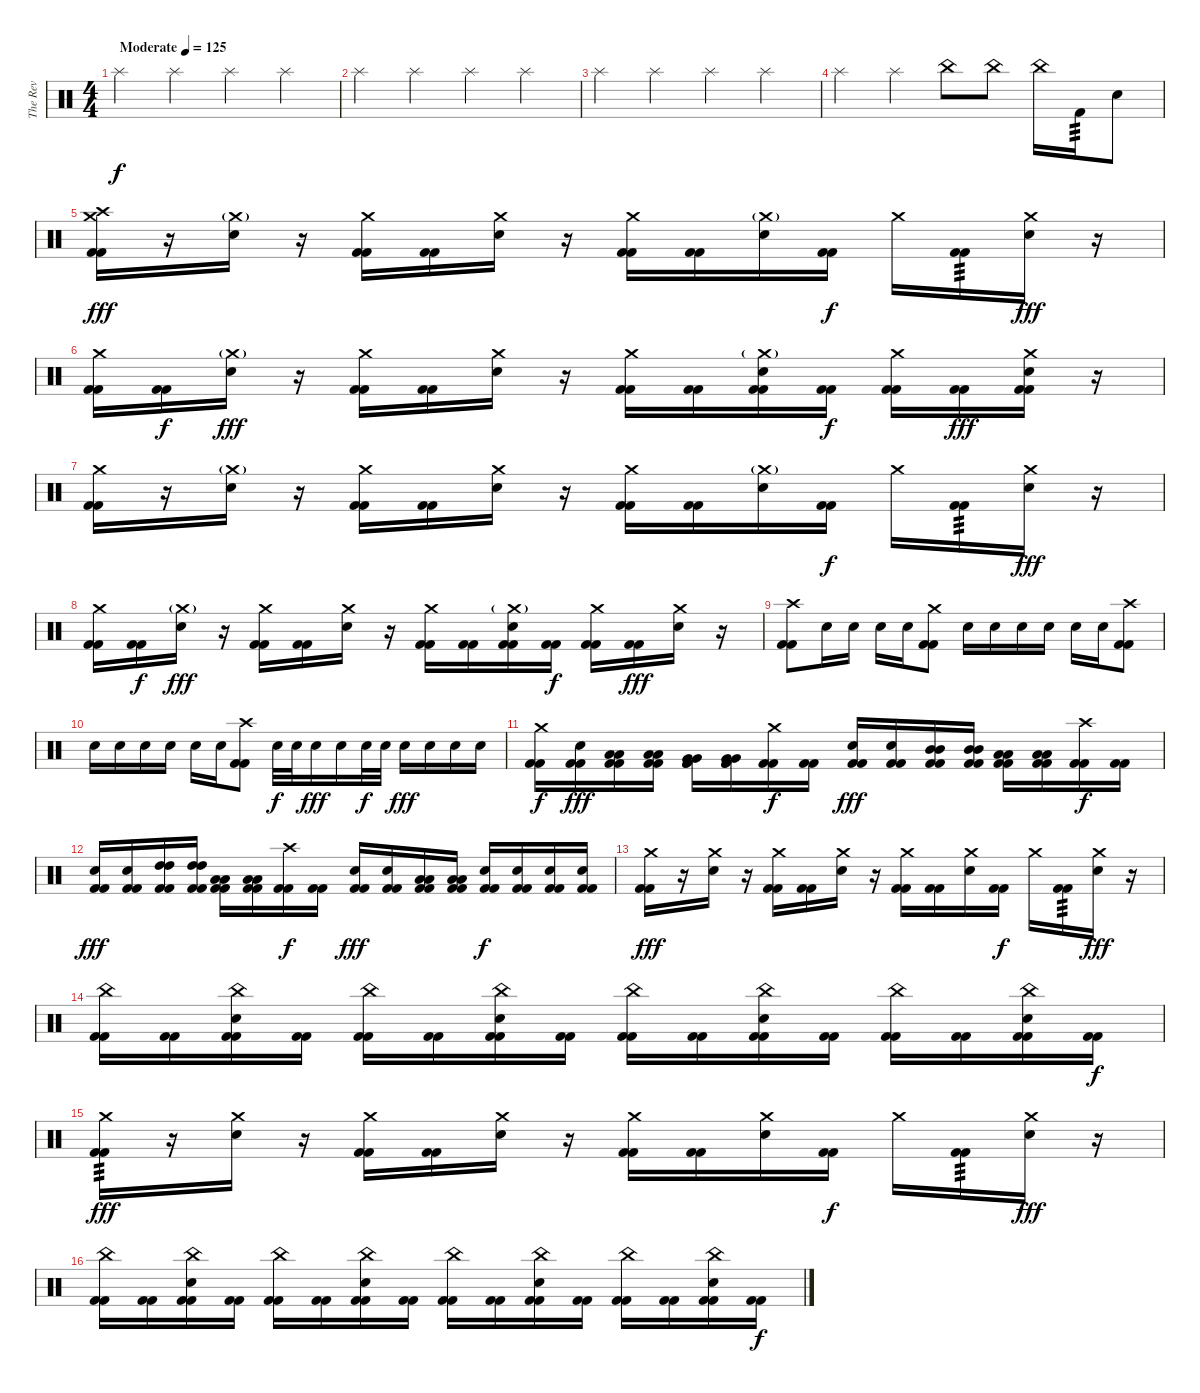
\track ("The Rev" "The Rev") {instrument percussion}
\staff {score}
\articulation defaults
\ts (4 4)
\tempo (125 "Moderate")
\clef neutral
\ks c "Splash (hit)".4{dy f} "Splash (hit)".4 "Splash (hit)".4 "Splash (hit)".4
|
"Splash (hit)".4 "Splash (hit)".4 "Splash (hit)".4 "Splash (hit)".4 |
"Splash (hit)".4 "Splash (hit)".4 "Splash (hit)".4 "Splash (hit)".4 |
"Splash (hit)".4 "Splash (hit)".4 "China (hit)".8 "China (hit)".8 "China (hit)".16 "Kick (hit) 2".16{tp 3} "Electric Snare (hit)".8 |
("Crash medium (hit)" "Crash high (hit)" "Kick (hit) 2" "Kick (hit) 2").16{dy fff} r.16 ("Crash medium (hit)"{g} "Electric Snare (hit)").16 r.16 ("Crash medium (hit)" "Kick (hit) 2" "Kick (hit) 2").16 ("Kick (hit) 2" "Kick (hit) 2").16 ("Crash medium (hit)" "Electric Snare (hit)").16 r.16 ("Crash medium (hit)" "Kick (hit) 2" "Kick (hit) 2").16 ("Kick (hit) 2" "Kick (hit) 2").16 ("Crash medium (hit)"{g} "Electric Snare (hit)").16 ("Kick (hit) 2" "Kick (hit) 2").16{dy f} "Crash medium (hit)".16 ("Kick (hit) 2" "Kick (hit) 2").16{tp 3} ("Crash medium (hit)" "Electric Snare (hit)").16{dy fff} r.16 |
("Crash medium (hit)" "Kick (hit) 2" "Kick (hit) 2").16 ("Kick (hit) 2" "Kick (hit) 2").16{dy f} ("Crash medium (hit)"{g} "Electric Snare (hit)").16{dy fff} r.16 ("Crash medium (hit)" "Kick (hit) 2" "Kick (hit) 2").16 ("Kick (hit) 2" "Kick (hit) 2").16 ("Crash medium (hit)" "Electric Snare (hit)").16 r.16 ("Crash medium (hit)" "Kick (hit) 2" "Kick (hit) 2").16 ("Kick (hit) 2" "Kick (hit) 2").16 ("Crash medium (hit)"{g} "Electric Snare (hit)" "Kick (hit) 2" "Kick (hit) 2").16 ("Kick (hit) 2" "Kick (hit) 2").16{dy f} ("Crash medium (hit)" "Kick (hit) 2" "Kick (hit) 2").16 ("Kick (hit) 2" "Kick (hit) 2").16{dy fff} ("Crash medium (hit)" "Electric Snare (hit)" "Kick (hit) 2" "Kick (hit) 2").16 r.16 |
("Crash medium (hit)" "Kick (hit) 2" "Kick (hit) 2").16 r.16 ("Crash medium (hit)"{g} "Electric Snare (hit)").16 r.16 ("Crash medium (hit)" "Kick (hit) 2" "Kick (hit) 2").16 ("Kick (hit) 2" "Kick (hit) 2").16 ("Crash medium (hit)" "Electric Snare (hit)").16 r.16 ("Crash medium (hit)" "Kick (hit) 2" "Kick (hit) 2").16 ("Kick (hit) 2" "Kick (hit) 2").16 ("Crash medium (hit)"{g} "Electric Snare (hit)").16 ("Kick (hit) 2" "Kick (hit) 2").16{dy f} "Crash medium (hit)".16 ("Kick (hit) 2" "Kick (hit) 2").16{tp 3} ("Crash medium (hit)" "Electric Snare (hit)").16{dy fff} r.16 |
("Crash medium (hit)" "Kick (hit) 2" "Kick (hit) 2").16 ("Kick (hit) 2" "Kick (hit) 2").16{dy f} ("Crash medium (hit)"{g} "Electric Snare (hit)").16{dy fff} r.16 ("Crash medium (hit)" "Kick (hit) 2" "Kick (hit) 2").16 ("Kick (hit) 2" "Kick (hit) 2").16 ("Crash medium (hit)" "Electric Snare (hit)").16 r.16 ("Crash medium (hit)" "Kick (hit) 2" "Kick (hit) 2").16 ("Kick (hit) 2" "Kick (hit) 2").16 ("Crash medium (hit)"{g} "Electric Snare (hit)" "Kick (hit) 2" "Kick (hit) 2").16 ("Kick (hit) 2" "Kick (hit) 2").16{dy f} ("Crash medium (hit)" "Kick (hit) 2" "Kick (hit) 2").16 ("Kick (hit) 2" "Kick (hit) 2").16{dy fff} ("Crash medium (hit)" "Electric Snare (hit)").16 r.16 |
("Crash high (hit)" "Kick (hit) 2" "Kick (hit) 2").8 "Electric Snare (hit)".16 "Electric Snare (hit)".16 "Electric Snare (hit)".16 "Electric Snare (hit)".16 ("Crash medium (hit)" "Kick (hit) 2" "Kick (hit) 2").8 "Electric Snare (hit)".16 "Electric Snare (hit)".16 "Electric Snare (hit)".16 "Electric Snare (hit)".16 "Electric Snare (hit)".16 "Electric Snare (hit)".16 ("Crash high (hit)" "Kick (hit) 2" "Kick (hit) 2").8 |
"Electric Snare (hit)".16 "Electric Snare (hit)".16 "Electric Snare (hit)".16 "Electric Snare (hit)".16 "Electric Snare (hit)".16 "Electric Snare (hit)".16 ("Crash high (hit)" "Kick (hit) 2" "Kick (hit) 2").8 "Electric Snare (hit)".32{dy f} "Electric Snare (hit)".32 "Electric Snare (hit)".16{dy fff} "Electric Snare (hit)".16 "Electric Snare (hit)".32{dy f} "Electric Snare (hit)".32 "Electric Snare (hit)".16{dy fff} "Electric Snare (hit)".16 "Electric Snare (hit)".16 "Electric Snare (hit)".16 |
("Crash medium (hit)" "Kick (hit) 2" "Kick (hit) 2").16{dy f} ("Electric Snare (hit)" "Kick (hit) 2" "Kick (hit) 2").16{dy fff} ("Low Tom (hit)" "Low Tom (hit)" "Kick (hit) 2" "Kick (hit) 2").16 ("Low Tom (hit)" "Low Tom (hit)" "Kick (hit) 2" "Kick (hit) 2").16 ("Very Low Tom (hit)" "Very Low Tom (hit)" "Kick (hit) 2" "Kick (hit) 2").16 ("Very Low Tom (hit)" "Very Low Tom (hit)" "Kick (hit) 2" "Kick (hit) 2").16 ("Crash medium (hit)" "Kick (hit) 2" "Kick (hit) 2").16{dy f} ("Kick (hit) 2" "Kick (hit) 2").16 ("Electric Snare (hit)" "Kick (hit) 2" "Kick (hit) 2").16{dy fff} ("Electric Snare (hit)" "Kick (hit) 2" "Kick (hit) 2").16 ("Mid Tom (hit)" "Mid Tom (hit)" "Kick (hit) 2" "Kick (hit) 2").16 ("Mid Tom (hit)" "Mid Tom (hit)" "Kick (hit) 2" "Kick (hit) 2").16 ("Low Tom (hit)" "Low Tom (hit)" "Kick (hit) 2" "Kick (hit) 2").16 ("Low Tom (hit)" "Low Tom (hit)" "Kick (hit) 2" "Kick (hit) 2").16 ("Crash high (hit)" "Kick (hit) 2" "Kick (hit) 2").16{dy f} ("Kick (hit) 2" "Kick (hit) 2").16 |
("Electric Snare (hit)" "Kick (hit) 2" "Kick (hit) 2").16{dy fff} ("Electric Snare (hit)" "Kick (hit) 2" "Kick (hit) 2").16 ("High Tom (hit)" "High Tom (hit)" "Kick (hit) 2" "Kick (hit) 2").16 ("High Tom (hit)" "High Tom (hit)" "Kick (hit) 2" "Kick (hit) 2").16 ("Low Tom (hit)" "Low Tom (hit)" "Kick (hit) 2" "Kick (hit) 2").16 ("Low Tom (hit)" "Low Tom (hit)" "Kick (hit) 2" "Kick (hit) 2").16 ("Crash high (hit)" "Kick (hit) 2" "Kick (hit) 2").16{dy f} ("Kick (hit) 2" "Kick (hit) 2").16 ("Electric Snare (hit)" "Kick (hit) 2" "Kick (hit) 2").16{dy fff} ("Electric Snare (hit)" "Kick (hit) 2" "Kick (hit) 2").16 ("Low Tom (hit)" "Low Tom (hit)" "Kick (hit) 2" "Kick (hit) 2").16 ("Low Tom (hit)" "Low Tom (hit)" "Kick (hit) 2" "Kick (hit) 2").16 ("Electric Snare (hit)" "Kick (hit) 2" "Kick (hit) 2").16{dy f} ("Electric Snare (hit)" "Kick (hit) 2" "Kick (hit) 2").16 ("Electric Snare (hit)" "Kick (hit) 2" "Kick (hit) 2").16 ("Electric Snare (hit)" "Kick (hit) 2" "Kick (hit) 2").16 |
("Crash medium (hit)" "Kick (hit) 2" "Kick (hit) 2").16{dy fff} r.16 ("Crash medium (hit)" "Electric Snare (hit)").16 r.16 ("Crash medium (hit)" "Kick (hit) 2" "Kick (hit) 2").16 ("Kick (hit) 2" "Kick (hit) 2").16 ("Crash medium (hit)" "Electric Snare (hit)").16 r.16 ("Crash medium (hit)" "Kick (hit) 2" "Kick (hit) 2").16 ("Kick (hit) 2" "Kick (hit) 2").16 ("Crash medium (hit)" "Electric Snare (hit)").16 ("Kick (hit) 2" "Kick (hit) 2").16{dy f} "Crash medium (hit)".16 ("Kick (hit) 2" "Kick (hit) 2").16{tp 3} ("Crash medium (hit)" "Electric Snare (hit)").16{dy fff} r.16 |
("China (hit)" "Kick (hit) 2" "Kick (hit) 2").16 ("Kick (hit) 2" "Kick (hit) 2").16 ("China (hit)" "Electric Snare (hit)" "Kick (hit) 2" "Kick (hit) 2").16 ("Kick (hit) 2" "Kick (hit) 2").16 ("China (hit)" "Kick (hit) 2" "Kick (hit) 2").16 ("Kick (hit) 2" "Kick (hit) 2").16 ("China (hit)" "Electric Snare (hit)" "Kick (hit) 2" "Kick (hit) 2").16 ("Kick (hit) 2" "Kick (hit) 2").16 ("China (hit)" "Kick (hit) 2" "Kick (hit) 2").16 ("Kick (hit) 2" "Kick (hit) 2").16 ("China (hit)" "Electric Snare (hit)" "Kick (hit) 2" "Kick (hit) 2").16 ("Kick (hit) 2" "Kick (hit) 2").16 ("China (hit)" "Kick (hit) 2" "Kick (hit) 2").16 ("Kick (hit) 2" "Kick (hit) 2").16 ("China (hit)" "Electric Snare (hit)" "Kick (hit) 2" "Kick (hit) 2").16 ("Kick (hit) 2" "Kick (hit) 2").16{dy f} |
("Crash medium (hit)" "Kick (hit) 2" "Kick (hit) 2").16{tp 3 dy fff} r.16 ("Crash medium (hit)" "Electric Snare (hit)").16 r.16 ("Crash medium (hit)" "Kick (hit) 2" "Kick (hit) 2").16 ("Kick (hit) 2" "Kick (hit) 2").16 ("Crash medium (hit)" "Electric Snare (hit)").16 r.16 ("Crash medium (hit)" "Kick (hit) 2" "Kick (hit) 2").16 ("Kick (hit) 2" "Kick (hit) 2").16 ("Crash medium (hit)" "Electric Snare (hit)").16 ("Kick (hit) 2" "Kick (hit) 2").16{dy f} "Crash medium (hit)".16 ("Kick (hit) 2" "Kick (hit) 2").16{tp 3} ("Crash medium (hit)" "Electric Snare (hit)").16{dy fff} r.16 |
("China (hit)" "Kick (hit) 2" "Kick (hit) 2").16 ("Kick (hit) 2" "Kick (hit) 2").16 ("China (hit)" "Electric Snare (hit)" "Kick (hit) 2" "Kick (hit) 2").16 ("Kick (hit) 2" "Kick (hit) 2").16 ("China (hit)" "Kick (hit) 2" "Kick (hit) 2").16 ("Kick (hit) 2" "Kick (hit) 2").16 ("China (hit)" "Electric Snare (hit)" "Kick (hit) 2" "Kick (hit) 2").16 ("Kick (hit) 2" "Kick (hit) 2").16 ("China (hit)" "Kick (hit) 2" "Kick (hit) 2").16 ("Kick (hit) 2" "Kick (hit) 2").16 ("China (hit)" "Electric Snare (hit)" "Kick (hit) 2" "Kick (hit) 2").16 ("Kick (hit) 2" "Kick (hit) 2").16 ("China (hit)" "Kick (hit) 2" "Kick (hit) 2").16 ("Kick (hit) 2" "Kick (hit) 2").16 ("China (hit)" "Electric Snare (hit)" "Kick (hit) 2" "Kick (hit) 2").16 ("Kick (hit) 2" "Kick (hit) 2").16{dy f}
